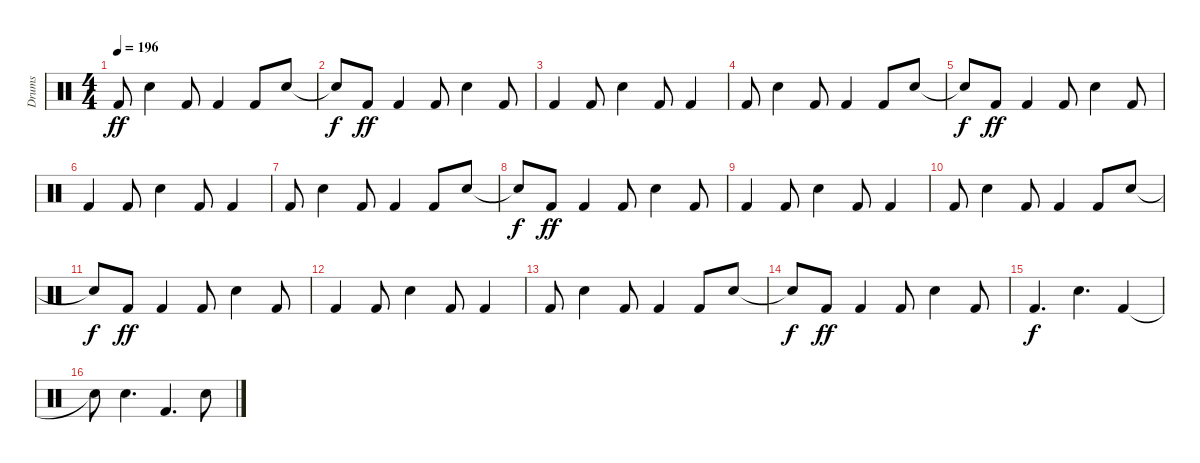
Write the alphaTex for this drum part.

\track ("Drums" "Drums") {instrument percussion}
\staff {score}
\articulation defaults
\ts (4 4)
\tempo 196
\clef neutral
\ks c "Kick (hit) 2".8{dy ff} "Electric Snare (hit)".4 "Kick (hit) 2".8 "Kick (hit) 2".4 "Kick (hit) 2".8 "Electric Snare (hit)".8
|
"Snare (hit)"{t}.8{dy f} "Kick (hit) 2".8{dy ff} "Kick (hit) 2".4 "Kick (hit) 2".8 "Electric Snare (hit)".4 "Kick (hit) 2".8 |
"Kick (hit) 2".4 "Kick (hit) 2".8 "Electric Snare (hit)".4 "Kick (hit) 2".8 "Kick (hit) 2".4 |
"Kick (hit) 2".8 "Electric Snare (hit)".4 "Kick (hit) 2".8 "Kick (hit) 2".4 "Kick (hit) 2".8 "Electric Snare (hit)".8 |
"Snare (hit)"{t}.8{dy f} "Kick (hit) 2".8{dy ff} "Kick (hit) 2".4 "Kick (hit) 2".8 "Electric Snare (hit)".4 "Kick (hit) 2".8 |
"Kick (hit) 2".4 "Kick (hit) 2".8 "Electric Snare (hit)".4 "Kick (hit) 2".8 "Kick (hit) 2".4 |
"Kick (hit) 2".8 "Electric Snare (hit)".4 "Kick (hit) 2".8 "Kick (hit) 2".4 "Kick (hit) 2".8 "Electric Snare (hit)".8 |
"Snare (hit)"{t}.8{dy f} "Kick (hit) 2".8{dy ff} "Kick (hit) 2".4 "Kick (hit) 2".8 "Electric Snare (hit)".4 "Kick (hit) 2".8 |
"Kick (hit) 2".4 "Kick (hit) 2".8 "Electric Snare (hit)".4 "Kick (hit) 2".8 "Kick (hit) 2".4 |
"Kick (hit) 2".8 "Electric Snare (hit)".4 "Kick (hit) 2".8 "Kick (hit) 2".4 "Kick (hit) 2".8 "Electric Snare (hit)".8 |
"Snare (hit)"{t}.8{dy f} "Kick (hit) 2".8{dy ff} "Kick (hit) 2".4 "Kick (hit) 2".8 "Electric Snare (hit)".4 "Kick (hit) 2".8 |
"Kick (hit) 2".4 "Kick (hit) 2".8 "Electric Snare (hit)".4 "Kick (hit) 2".8 "Kick (hit) 2".4 |
"Kick (hit) 2".8 "Electric Snare (hit)".4 "Kick (hit) 2".8 "Kick (hit) 2".4 "Kick (hit) 2".8 "Electric Snare (hit)".8 |
"Snare (hit)"{t}.8{dy f} "Kick (hit) 2".8{dy ff} "Kick (hit) 2".4 "Kick (hit) 2".8 "Electric Snare (hit)".4 "Kick (hit) 2".8 |
"Kick (hit) 2".4{d dy f} "Electric Snare (hit)".4{d} "Kick (hit) 2".4 |
"Snare (hit)"{t}.8 "Electric Snare (hit)".4{d} "Kick (hit) 2".4{d} "Electric Snare (hit)".8
